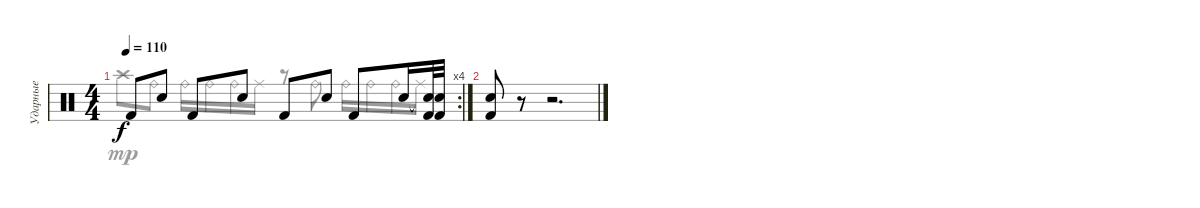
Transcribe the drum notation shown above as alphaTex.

\track ("Ударные" "Ударные") {instrument percussion}
\staff {score}
\articulation defaults
\voice
\rc 4
\ts (4 4)
\tempo 110
\clef neutral
\ks c "Kick (hit) 2".8{dy f} "Snare (hit) 2".8 "Kick (hit) 2".8 "Snare (hit) 2".8 "Kick (hit) 2".8 "Snare (hit) 2".8 "Kick (hit) 2".8 "Snare (hit) 2".16
("Snare (hit) 2"{t} "Kick (hit) 2").32 ("Snare (hit) 2"{t} "Kick (hit) 2").32 |
("Kick (hit) 2" "Snare (hit) 2").8 r.8 r.2{d} |
\voice
\clef neutral
\ottava regular
\simile none
\ks c "Crash high (hit)".8{dy mp} "Ride (bell)".8 "Ride (bell)".16 "Ride (bell)".16 "Ride (bell)".16 "Ride (middle)".16
r.8 "Ride (bell)".8 "Ride (bell)".16 "Ride (bell)".16 "Ride (bell)".16 "Ride (middle)".16 |
|
